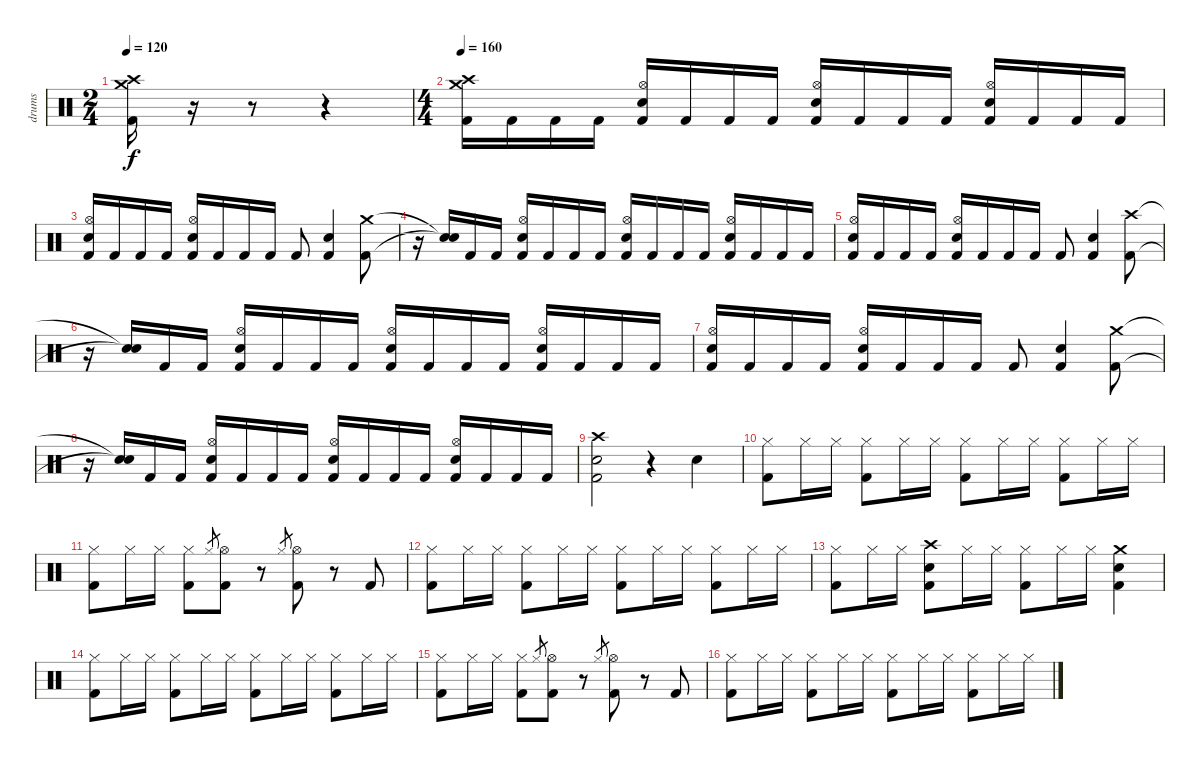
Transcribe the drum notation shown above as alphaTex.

\track ("drums" "drums") {instrument percussion}
\staff {score}
\articulation defaults
\ts (2 4)
\tempo 120
\clef neutral
\ks c
("Crash medium (hit)" "Crash high (hit)" "Kick (hit) 2").16{dy f} r.16 r.8 r.4 |
\ts (4 4)
\tempo 160
("Crash high (hit)" "Crash medium (hit)" "Kick (hit) 2").16 "Kick (hit) 2".16 "Kick (hit) 2".16 "Kick (hit) 2".16 ("Hi-Hat (open)" "Snare (hit) 2" "Kick (hit) 2").16 "Kick (hit) 2".16 "Kick (hit) 2".16 "Kick (hit) 2".16 ("Hi-Hat (open)" "Snare (hit) 2" "Kick (hit) 2").16 "Kick (hit) 2".16 "Kick (hit) 2".16 "Kick (hit) 2".16 ("Hi-Hat (open)" "Snare (hit) 2" "Kick (hit) 2").16 "Kick (hit) 2".16 "Kick (hit) 2".16 "Kick (hit) 2".16 |
("Hi-Hat (open)" "Snare (hit) 2" "Kick (hit) 2").16 "Kick (hit) 2".16 "Kick (hit) 2".16 "Kick (hit) 2".16 ("Hi-Hat (open)" "Snare (hit) 2" "Kick (hit) 2").16 "Kick (hit) 2".16 "Kick (hit) 2".16 "Kick (hit) 2".16 "Kick (hit) 2".8 ("Snare (hit) 2" "Kick (hit) 2").4 ("Crash medium (hit)" "Kick (hit) 2").8 |
r.16 ("Snare (hit)"{t} "Snare (hit)"{t}).16 "Kick (hit) 2".16 "Kick (hit) 2".16 ("Hi-Hat (open)" "Snare (hit) 2" "Kick (hit) 2").16 "Kick (hit) 2".16 "Kick (hit) 2".16 "Kick (hit) 2".16 ("Hi-Hat (open)" "Snare (hit) 2" "Kick (hit) 2").16 "Kick (hit) 2".16 "Kick (hit) 2".16 "Kick (hit) 2".16 ("Hi-Hat (open)" "Snare (hit) 2" "Kick (hit) 2").16 "Kick (hit) 2".16 "Kick (hit) 2".16 "Kick (hit) 2".16 |
("Hi-Hat (open)" "Snare (hit) 2" "Kick (hit) 2").16 "Kick (hit) 2".16 "Kick (hit) 2".16 "Kick (hit) 2".16 ("Hi-Hat (open)" "Snare (hit) 2" "Kick (hit) 2").16 "Kick (hit) 2".16 "Kick (hit) 2".16 "Kick (hit) 2".16 "Kick (hit) 2".8 ("Snare (hit) 2" "Kick (hit) 2").4 ("Crash high (hit)" "Kick (hit) 2").8 |
r.16 ("Snare (hit)"{t} "Snare (hit)"{t}).16 "Kick (hit) 2".16 "Kick (hit) 2".16 ("Hi-Hat (open)" "Snare (hit) 2" "Kick (hit) 2").16 "Kick (hit) 2".16 "Kick (hit) 2".16 "Kick (hit) 2".16 ("Hi-Hat (open)" "Snare (hit) 2" "Kick (hit) 2").16 "Kick (hit) 2".16 "Kick (hit) 2".16 "Kick (hit) 2".16 ("Hi-Hat (open)" "Snare (hit) 2" "Kick (hit) 2").16 "Kick (hit) 2".16 "Kick (hit) 2".16 "Kick (hit) 2".16 |
("Hi-Hat (open)" "Snare (hit) 2" "Kick (hit) 2").16 "Kick (hit) 2".16 "Kick (hit) 2".16 "Kick (hit) 2".16 ("Hi-Hat (open)" "Snare (hit) 2" "Kick (hit) 2").16 "Kick (hit) 2".16 "Kick (hit) 2".16 "Kick (hit) 2".16 "Kick (hit) 2".8 ("Snare (hit) 2" "Kick (hit) 2").4 ("Crash medium (hit)" "Kick (hit) 2").8 |
r.16 ("Snare (hit)"{t} "Snare (hit)"{t}).16 "Kick (hit) 2".16 "Kick (hit) 2".16 ("Hi-Hat (open)" "Snare (hit) 2" "Kick (hit) 2").16 "Kick (hit) 2".16 "Kick (hit) 2".16 "Kick (hit) 2".16 ("Hi-Hat (open)" "Snare (hit) 2" "Kick (hit) 2").16 "Kick (hit) 2".16 "Kick (hit) 2".16 "Kick (hit) 2".16 ("Hi-Hat (open)" "Snare (hit) 2" "Kick (hit) 2").16 "Kick (hit) 2".16 "Kick (hit) 2".16 "Kick (hit) 2".16 |
("Crash high (hit)" "Snare (hit) 2" "Kick (hit) 2").2 r.4 "Snare (hit) 2".4 |
("Hi-Hat (closed)" "Kick (hit) 2").8 "Hi-Hat (closed)".16 "Hi-Hat (closed)".16 ("Hi-Hat (closed)" "Kick (hit) 2").8 "Hi-Hat (closed)".16 "Hi-Hat (closed)".16 ("Hi-Hat (closed)" "Kick (hit) 2").8 "Hi-Hat (closed)".16 "Hi-Hat (closed)".16 ("Hi-Hat (closed)" "Kick (hit) 2").8 "Hi-Hat (closed)".16 "Hi-Hat (closed)".16 |
("Hi-Hat (closed)" "Kick (hit) 2").8 "Hi-Hat (closed)".16 "Hi-Hat (closed)".16 ("Hi-Hat (closed)" "Kick (hit) 2").8 "Hi-Hat (closed)".8{gr} ("Hi-Hat (open)" "Kick (hit) 2").8 r.8 "Hi-Hat (closed)".8{gr} ("Hi-Hat (open)" "Kick (hit) 2").8 r.8 "Kick (hit) 2".8 |
("Hi-Hat (closed)" "Kick (hit) 2").8 "Hi-Hat (closed)".16 "Hi-Hat (closed)".16 ("Hi-Hat (closed)" "Kick (hit) 2").8 "Hi-Hat (closed)".16 "Hi-Hat (closed)".16 ("Hi-Hat (closed)" "Kick (hit) 2").8 "Hi-Hat (closed)".16 "Hi-Hat (closed)".16 ("Hi-Hat (closed)" "Kick (hit) 2").8 "Hi-Hat (closed)".16 "Hi-Hat (closed)".16 |
("Hi-Hat (closed)" "Kick (hit) 2").8 "Hi-Hat (closed)".16 "Hi-Hat (closed)".16 ("Crash high (hit)" "Snare (hit) 2" "Kick (hit) 2").8 "Hi-Hat (closed)".16 "Hi-Hat (closed)".16 ("Hi-Hat (closed)" "Kick (hit) 2").8 "Hi-Hat (closed)".16 "Hi-Hat (closed)".16 ("Crash medium (hit)" "Snare (hit) 2" "Kick (hit) 2").4 |
("Hi-Hat (closed)" "Kick (hit) 2").8 "Hi-Hat (closed)".16 "Hi-Hat (closed)".16 ("Hi-Hat (closed)" "Kick (hit) 2").8 "Hi-Hat (closed)".16 "Hi-Hat (closed)".16 ("Hi-Hat (closed)" "Kick (hit) 2").8 "Hi-Hat (closed)".16 "Hi-Hat (closed)".16 ("Hi-Hat (closed)" "Kick (hit) 2").8 "Hi-Hat (closed)".16 "Hi-Hat (closed)".16 |
("Hi-Hat (closed)" "Kick (hit) 2").8 "Hi-Hat (closed)".16 "Hi-Hat (closed)".16 ("Hi-Hat (closed)" "Kick (hit) 2").8 "Hi-Hat (closed)".8{gr} ("Hi-Hat (open)" "Kick (hit) 2").8 r.8 "Hi-Hat (closed)".8{gr} ("Hi-Hat (open)" "Kick (hit) 2").8 r.8 "Kick (hit) 2".8 |
("Hi-Hat (closed)" "Kick (hit) 2").8 "Hi-Hat (closed)".16 "Hi-Hat (closed)".16 ("Hi-Hat (closed)" "Kick (hit) 2").8 "Hi-Hat (closed)".16 "Hi-Hat (closed)".16 ("Hi-Hat (closed)" "Kick (hit) 2").8 "Hi-Hat (closed)".16 "Hi-Hat (closed)".16 ("Hi-Hat (closed)" "Kick (hit) 2").8 "Hi-Hat (closed)".16 "Hi-Hat (closed)".16
